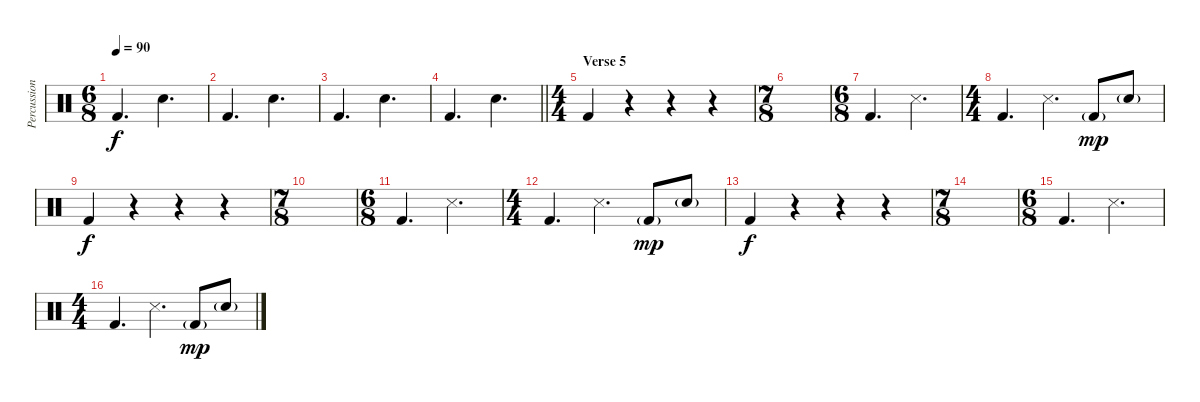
\track ("Percussion" "Percussion") {instrument percussion}
\staff {score}
\articulation defaults
\ts (6 8)
\tempo 90
\clef neutral
\ks c "Kick (hit) 2".4{d dy f} "Snare (hit) 2".4{d}
|
"Kick (hit) 2".4{d} "Snare (hit) 2".4{d} |
"Kick (hit) 2".4{d} "Snare (hit) 2".4{d} |
\barLineRight lightlight "Kick (hit) 2".4{d} "Snare (hit) 2".4{d}
|
\ts (4 4)
\section ("" "Verse 5")
"Kick (hit) 2".4 r.4 r.4 r.4 |
\ts (7 8)
|
\ts (6 8)
"Kick (hit) 2".4{d} "Snare (side stick) 3".4{d} |
\ts (4 4)
"Kick (hit) 2".4{d} "Snare (side stick) 3".4{d} "Kick (hit) 2"{g}.8{dy mp} "Snare (hit) 2"{g}.8 |
"Kick (hit) 2".4{dy f} r.4 r.4 r.4 |
\ts (7 8)
|
\ts (6 8)
"Kick (hit) 2".4{d} "Snare (side stick) 3".4{d} |
\ts (4 4)
"Kick (hit) 2".4{d} "Snare (side stick) 3".4{d} "Kick (hit) 2"{g}.8{dy mp} "Snare (hit) 2"{g}.8 |
"Kick (hit) 2".4{dy f} r.4 r.4 r.4 |
\ts (7 8)
|
\ts (6 8)
"Kick (hit) 2".4{d} "Snare (side stick) 3".4{d} |
\ts (4 4)
"Kick (hit) 2".4{d} "Snare (side stick) 3".4{d} "Kick (hit) 2"{g}.8{dy mp} "Snare (hit) 2"{g}.8
